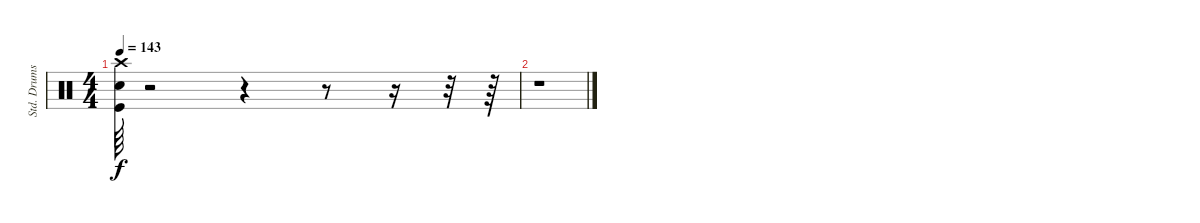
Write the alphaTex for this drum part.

\track ("Std. Drums " "Std. Drums") {instrument percussion}
\staff {score}
\articulation defaults
\ts (4 4)
\tempo 143
\clef neutral
\ks c
("Crash high (hit)" "Snare (hit) 2" "Kick (hit)").64{dy f} r.2 r.4 r.8 r.16 r.32 r.64 |
r.1
